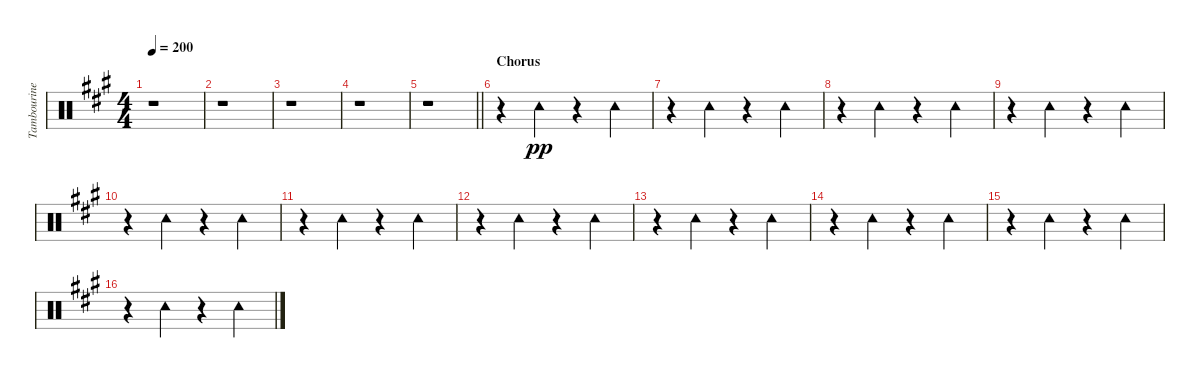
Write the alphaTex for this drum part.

\track ("Tambourine" "Tambourine") {instrument percussion}
\staff {score}
\articulation defaults
\ts (4 4)
\tempo 200
\clef neutral
\ks a
r.1{dy pp} |
r.1 |
r.1 |
r.1 |
\barLineRight lightlight
r.1 |
\section ("" "Chorus")
r.4 "Tambourine (hit)".4 r.4 "Tambourine (hit)".4 |
r.4 "Tambourine (hit)".4 r.4 "Tambourine (hit)".4 |
r.4 "Tambourine (hit)".4 r.4 "Tambourine (hit)".4 |
r.4 "Tambourine (hit)".4 r.4 "Tambourine (hit)".4 |
r.4 "Tambourine (hit)".4 r.4 "Tambourine (hit)".4 |
r.4 "Tambourine (hit)".4 r.4 "Tambourine (hit)".4 |
r.4 "Tambourine (hit)".4 r.4 "Tambourine (hit)".4 |
r.4 "Tambourine (hit)".4 r.4 "Tambourine (hit)".4 |
r.4 "Tambourine (hit)".4 r.4 "Tambourine (hit)".4 |
r.4 "Tambourine (hit)".4 r.4 "Tambourine (hit)".4 |
r.4 "Tambourine (hit)".4 r.4 "Tambourine (hit)".4
